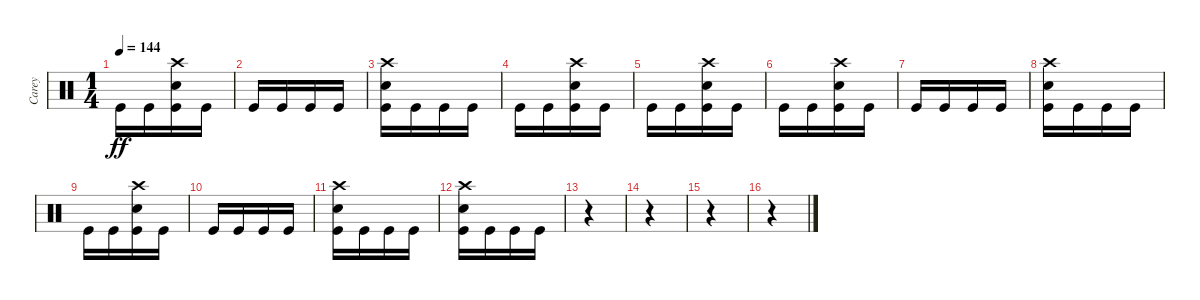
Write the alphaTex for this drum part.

\track ("Carey" "Carey") {instrument percussion}
\staff {score}
\articulation defaults
\ts (1 4)
\tempo 144
\clef neutral
\ks c "Kick (hit)".16{dy ff} "Kick (hit)".16
("Kick (hit)" "Snare (hit) 2" "Crash high (hit)").16 "Kick (hit)".16 |
"Kick (hit)".16 "Kick (hit)".16 "Kick (hit)".16 "Kick (hit)".16 |
("Kick (hit)" "Snare (hit) 2" "Crash high (hit)").16 "Kick (hit)".16 "Kick (hit)".16 "Kick (hit)".16 |
"Kick (hit)".16 "Kick (hit)".16 ("Kick (hit)" "Snare (hit) 2" "Crash high (hit)").16 "Kick (hit)".16 |
"Kick (hit)".16 "Kick (hit)".16 ("Kick (hit)" "Snare (hit) 2" "Crash high (hit)").16 "Kick (hit)".16 |
"Kick (hit)".16 "Kick (hit)".16 ("Kick (hit)" "Snare (hit) 2" "Crash high (hit)").16 "Kick (hit)".16 |
"Kick (hit)".16 "Kick (hit)".16 "Kick (hit)".16 "Kick (hit)".16 |
("Kick (hit)" "Snare (hit) 2" "Crash high (hit)").16 "Kick (hit)".16 "Kick (hit)".16 "Kick (hit)".16 |
"Kick (hit)".16 "Kick (hit)".16 ("Kick (hit)" "Snare (hit) 2" "Crash high (hit)").16 "Kick (hit)".16 |
"Kick (hit)".16 "Kick (hit)".16 "Kick (hit)".16 "Kick (hit)".16 |
("Kick (hit)" "Snare (hit) 2" "Crash high (hit)").16 "Kick (hit)".16 "Kick (hit)".16 "Kick (hit)".16 |
("Kick (hit)" "Snare (hit) 2" "Crash high (hit)").16 "Kick (hit)".16 "Kick (hit)".16 "Kick (hit)".16 |
r.4 |
r.4 |
r.4 |
r.4
